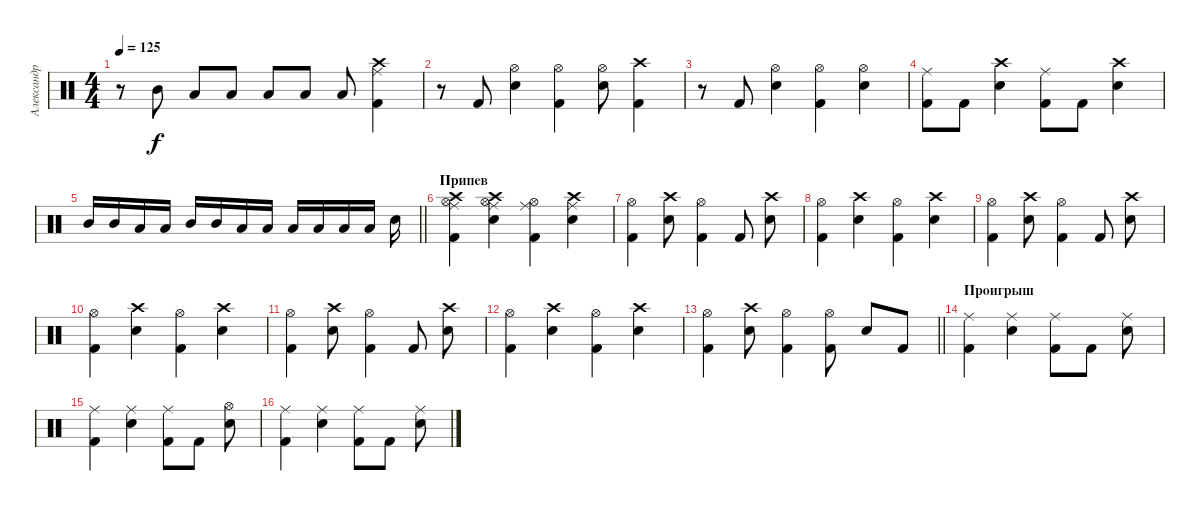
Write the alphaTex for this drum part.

\track ("Александр Манякин" "Александр ") {instrument percussion}
\staff {score}
\articulation defaults
\ts (4 4)
\tempo 125
\clef neutral
\ks c
r.8{dy f} "Mid Tom (hit)".8 "Low Tom (hit)".8 "Low Tom (hit)".8 "Low Tom (hit)".8 "Low Tom (hit)".8 "Low Floor Tom (hit)".8 ("Ride (middle)" "Crash high (hit)" "Kick (hit) 2").4 |
r.8 "Kick (hit) 2".8 ("Hi-Hat (open)" "Snare (hit) 2").4 ("Hi-Hat (open)" "Kick (hit) 2").4 ("Hi-Hat (open)" "Snare (hit) 2").8 ("Crash high (hit)" "Kick (hit) 2").4 |
r.8 "Kick (hit) 2".8 ("Hi-Hat (open)" "Snare (hit) 2").4 ("Hi-Hat (open)" "Kick (hit) 2").4 ("Hi-Hat (open)" "Snare (hit) 2").4 |
("Kick (hit) 2" "Ride (middle)").8 "Kick (hit) 2".8 ("Crash high (hit)" "Snare (hit) 2").4 ("Kick (hit) 2" "Ride (middle)").8 "Kick (hit) 2".8 ("Crash high (hit)" "Snare (hit) 2").4 |
\barLineRight lightlight "Mid Tom (hit)".16 "Mid Tom (hit)".16 "Low Tom (hit)".16 "Low Tom (hit)".16 "Mid Tom (hit)".16 "Mid Tom (hit)".16 "Low Floor Tom (hit)".16 "Low Floor Tom (hit)".16 "Low Tom (hit)".16 "Low Tom (hit)".16 "Low Floor Tom (hit)".16 "Low Floor Tom (hit)".16 "Snare (hit) 2".16
|
\section ("" "Припев")
("Crash high (hit)" "Kick (hit) 2" "Hi-Hat (open)" "Ride (middle)").4 ("Hi-Hat (open)" "Snare (hit) 2" "Crash high (hit)" "Ride (middle)").4 ("Hi-Hat (open)" "Kick (hit) 2" "Ride (middle)").4 ("Ride (middle)" "Snare (hit) 2" "Crash high (hit)").4 |
("Kick (hit) 2" "Hi-Hat (open)").4 ("Snare (hit) 2" "Crash high (hit)").8 ("Kick (hit) 2" "Hi-Hat (open)").4 "Kick (hit) 2".8 ("Snare (hit) 2" "Crash high (hit)").8 |
("Kick (hit) 2" "Hi-Hat (open)").4 ("Snare (hit) 2" "Crash high (hit)").4 ("Kick (hit) 2" "Hi-Hat (open)").4 ("Snare (hit) 2" "Crash high (hit)").4 |
("Kick (hit) 2" "Hi-Hat (open)").4 ("Snare (hit) 2" "Crash high (hit)").8 ("Kick (hit) 2" "Hi-Hat (open)").4 "Kick (hit) 2".8 ("Snare (hit) 2" "Crash high (hit)").8 |
("Kick (hit) 2" "Hi-Hat (open)").4 ("Snare (hit) 2" "Crash high (hit)").4 ("Kick (hit) 2" "Hi-Hat (open)").4 ("Snare (hit) 2" "Crash high (hit)").4 |
("Kick (hit) 2" "Hi-Hat (open)").4 ("Snare (hit) 2" "Crash high (hit)").8 ("Kick (hit) 2" "Hi-Hat (open)").4 "Kick (hit) 2".8 ("Snare (hit) 2" "Crash high (hit)").8 |
("Kick (hit) 2" "Hi-Hat (open)").4 ("Snare (hit) 2" "Crash high (hit)").4 ("Kick (hit) 2" "Hi-Hat (open)").4 ("Snare (hit) 2" "Crash high (hit)").4 |
\barLineRight lightlight
("Kick (hit) 2" "Hi-Hat (open)").4 ("Snare (hit) 2" "Crash high (hit)").8 ("Kick (hit) 2" "Hi-Hat (open)").4 ("Kick (hit) 2" "Hi-Hat (open)").8 "Snare (hit) 2".8 "Kick (hit) 2".8 |
\section ("" "Проигрыш")
("Ride (middle)" "Kick (hit) 2").4 ("Ride (middle)" "Snare (hit) 2").4 ("Ride (middle)" "Kick (hit) 2").8 "Kick (hit) 2".8 ("Ride (middle)" "Snare (hit) 2").8 |
("Ride (middle)" "Kick (hit) 2").4 ("Ride (middle)" "Snare (hit) 2").4 ("Ride (middle)" "Kick (hit) 2").8 "Kick (hit) 2".8 ("Hi-Hat (open)" "Snare (hit) 2").8 |
("Ride (middle)" "Kick (hit) 2").4 ("Ride (middle)" "Snare (hit) 2").4 ("Ride (middle)" "Kick (hit) 2").8 "Kick (hit) 2".8 ("Ride (middle)" "Snare (hit) 2").8
